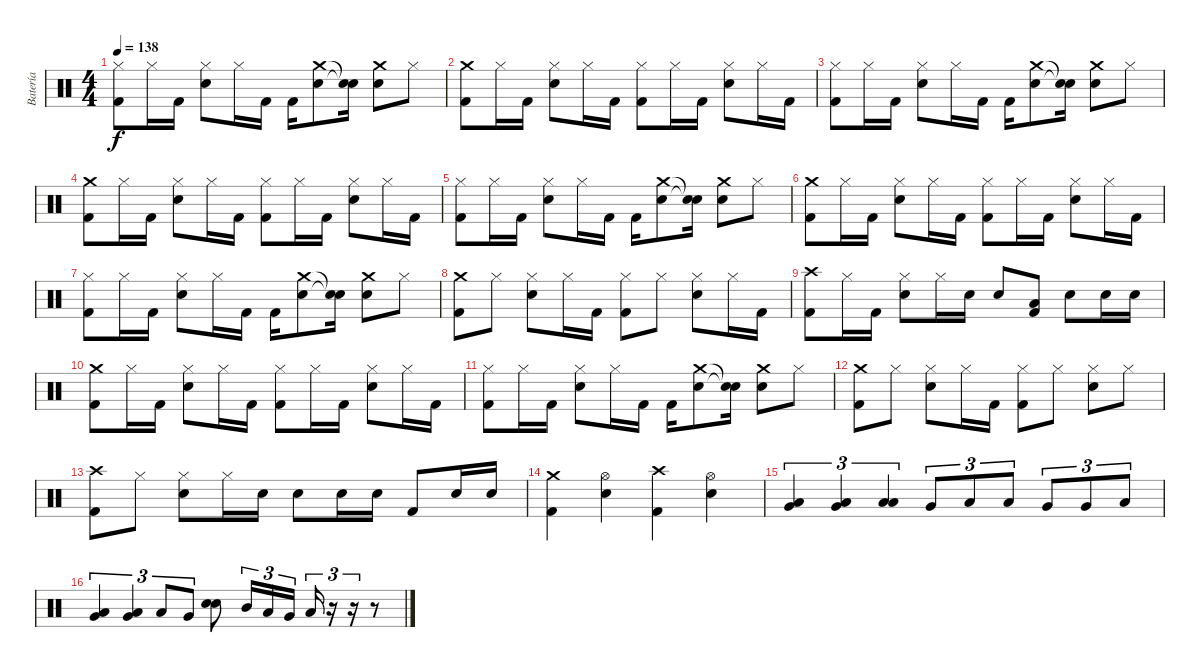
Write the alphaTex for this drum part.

\track ("Batería" "Batería") {instrument percussion}
\staff {score}
\articulation defaults
\ts (4 4)
\tempo 138
\clef neutral
\ks c
("Hi-Hat (closed)" "Kick (hit) 2").8{dy f} "Hi-Hat (closed)".16 "Kick (hit) 2".16 ("Hi-Hat (closed)" "Snare (hit) 2").8 "Hi-Hat (closed)".16 "Kick (hit) 2".16 "Kick (hit) 2".16 ("Crash medium (hit)" "Snare (hit) 2").8 ("Snare (hit)"{t} "Snare (hit)"{t}).16 ("Crash medium (hit)" "Snare (hit) 2").8 "Hi-Hat (closed)".8 |
("Crash medium (hit)" "Kick (hit) 2").8 "Hi-Hat (closed)".16 "Kick (hit) 2".16 ("Hi-Hat (closed)" "Snare (hit) 2").8 "Hi-Hat (closed)".16 "Kick (hit) 2".16 ("Hi-Hat (closed)" "Kick (hit) 2").8 "Hi-Hat (closed)".16 "Kick (hit) 2".16 ("Hi-Hat (closed)" "Snare (hit) 2").8 "Hi-Hat (closed)".16 "Kick (hit) 2".16 |
("Hi-Hat (closed)" "Kick (hit) 2").8 "Hi-Hat (closed)".16 "Kick (hit) 2".16 ("Hi-Hat (closed)" "Snare (hit) 2").8 "Hi-Hat (closed)".16 "Kick (hit) 2".16 "Kick (hit) 2".16 ("Crash medium (hit)" "Snare (hit) 2").8 ("Snare (hit)"{t} "Snare (hit)"{t}).16 ("Crash medium (hit)" "Snare (hit) 2").8 "Hi-Hat (closed)".8 |
("Crash medium (hit)" "Kick (hit) 2").8 "Hi-Hat (closed)".16 "Kick (hit) 2".16 ("Hi-Hat (closed)" "Snare (hit) 2").8 "Hi-Hat (closed)".16 "Kick (hit) 2".16 ("Hi-Hat (closed)" "Kick (hit) 2").8 "Hi-Hat (closed)".16 "Kick (hit) 2".16 ("Hi-Hat (closed)" "Snare (hit) 2").8 "Hi-Hat (closed)".16 "Kick (hit) 2".16 |
("Hi-Hat (closed)" "Kick (hit) 2").8 "Hi-Hat (closed)".16 "Kick (hit) 2".16 ("Hi-Hat (closed)" "Snare (hit) 2").8 "Hi-Hat (closed)".16 "Kick (hit) 2".16 "Kick (hit) 2".16 ("Crash medium (hit)" "Snare (hit) 2").8 ("Snare (hit)"{t} "Snare (hit)"{t}).16 ("Crash medium (hit)" "Snare (hit) 2").8 "Hi-Hat (closed)".8 |
("Crash medium (hit)" "Kick (hit) 2").8 "Hi-Hat (closed)".16 "Kick (hit) 2".16 ("Hi-Hat (closed)" "Snare (hit) 2").8 "Hi-Hat (closed)".16 "Kick (hit) 2".16 ("Hi-Hat (closed)" "Kick (hit) 2").8 "Hi-Hat (closed)".16 "Kick (hit) 2".16 ("Hi-Hat (closed)" "Snare (hit) 2").8 "Hi-Hat (closed)".16 "Kick (hit) 2".16 |
("Hi-Hat (closed)" "Kick (hit) 2").8 "Hi-Hat (closed)".16 "Kick (hit) 2".16 ("Hi-Hat (closed)" "Snare (hit) 2").8 "Hi-Hat (closed)".16 "Kick (hit) 2".16 "Kick (hit) 2".16 ("Crash medium (hit)" "Snare (hit) 2").8 ("Snare (hit)"{t} "Snare (hit)"{t}).16 ("Crash medium (hit)" "Snare (hit) 2").8 "Hi-Hat (closed)".8 |
("Crash medium (hit)" "Kick (hit) 2").8 "Hi-Hat (closed)".8 ("Hi-Hat (closed)" "Snare (hit) 2").8 "Hi-Hat (closed)".16 "Kick (hit) 2".16 ("Hi-Hat (closed)" "Kick (hit) 2").8 "Hi-Hat (closed)".8 ("Hi-Hat (closed)" "Snare (hit) 2").8 "Hi-Hat (closed)".16 "Kick (hit) 2".16 |
("Crash high (hit)" "Kick (hit) 2").8 "Hi-Hat (closed)".16 "Kick (hit) 2".16 ("Hi-Hat (closed)" "Snare (hit) 2").8 "Hi-Hat (closed)".16 "Snare (hit) 2".16 "Snare (hit) 2".8 ("Low Floor Tom (hit)" "Kick (hit) 2").8 "Snare (hit) 2".8 "Snare (hit) 2".16 "Snare (hit) 2".16 |
("Crash medium (hit)" "Kick (hit) 2").8 "Hi-Hat (closed)".16 "Kick (hit) 2".16 ("Hi-Hat (closed)" "Snare (hit) 2").8 "Hi-Hat (closed)".16 "Kick (hit) 2".16 ("Hi-Hat (closed)" "Kick (hit) 2").8 "Hi-Hat (closed)".16 "Kick (hit) 2".16 ("Hi-Hat (closed)" "Snare (hit) 2").8 "Hi-Hat (closed)".16 "Kick (hit) 2".16 |
("Hi-Hat (closed)" "Kick (hit) 2").8 "Hi-Hat (closed)".16 "Kick (hit) 2".16 ("Hi-Hat (closed)" "Snare (hit) 2").8 "Hi-Hat (closed)".16 "Kick (hit) 2".16 "Kick (hit) 2".16 ("Crash medium (hit)" "Snare (hit) 2").8 ("Snare (hit)"{t} "Snare (hit)"{t}).16 ("Crash medium (hit)" "Snare (hit) 2").8 "Hi-Hat (closed)".8 |
("Crash medium (hit)" "Kick (hit) 2").8 "Hi-Hat (closed)".8 ("Hi-Hat (closed)" "Snare (hit) 2").8 "Hi-Hat (closed)".16 "Kick (hit) 2".16 ("Hi-Hat (closed)" "Kick (hit) 2").8 "Hi-Hat (closed)".8 ("Hi-Hat (closed)" "Snare (hit) 2").8 "Hi-Hat (closed)".8 |
("Crash high (hit)" "Kick (hit) 2").8 "Hi-Hat (closed)".8 ("Hi-Hat (closed)" "Snare (hit) 2").8 "Hi-Hat (closed)".16 "Snare (hit) 2".16 "Snare (hit) 2".8 "Snare (hit) 2".16 "Snare (hit) 2".16 "Kick (hit) 2".8 "Snare (hit) 2".16 "Snare (hit) 2".16 |
("Crash medium (hit)" "Kick (hit) 2").4 ("Hi-Hat (open)" "Snare (hit) 2").4 ("Crash high (hit)" "Kick (hit) 2").4 ("Hi-Hat (open)" "Snare (hit) 2").4 |
("Low Tom (hit)" "Very Low Tom (hit)").4{tu (3 2)} ("Low Tom (hit)" "Very Low Tom (hit)").4{tu (3 2)} ("Low Floor Tom (hit)" "Low Floor Tom (hit)").4{tu (3 2)} "Very Low Tom (hit)".8{tu (3 2)} "Low Tom (hit)".8{tu (3 2)} "Low Tom (hit)".8{tu (3 2)} "Very Low Tom (hit)".8{tu (3 2)} "Very Low Tom (hit)".8{tu (3 2)} "Low Floor Tom (hit)".8{tu (3 2)} |
("Very Low Tom (hit)" "Low Floor Tom (hit)").4{tu (3 2)} ("Very Low Tom (hit)" "Low Floor Tom (hit)").4{tu (3 2)} "Low Floor Tom (hit)".8{tu (3 2)} "Very Low Tom (hit)".8{tu (3 2)} ("Snare (hit) 2" "Snare (hit) 2").8 "Mid Tom (hit)".16{tu (3 2)} "Low Tom (hit)".16{tu (3 2)} "Very Low Tom (hit)".16{tu (3 2)} "Low Floor Tom (hit)".16{tu (3 2)} r.16{tu (3 2)} r.16{tu (3 2)} r.8
